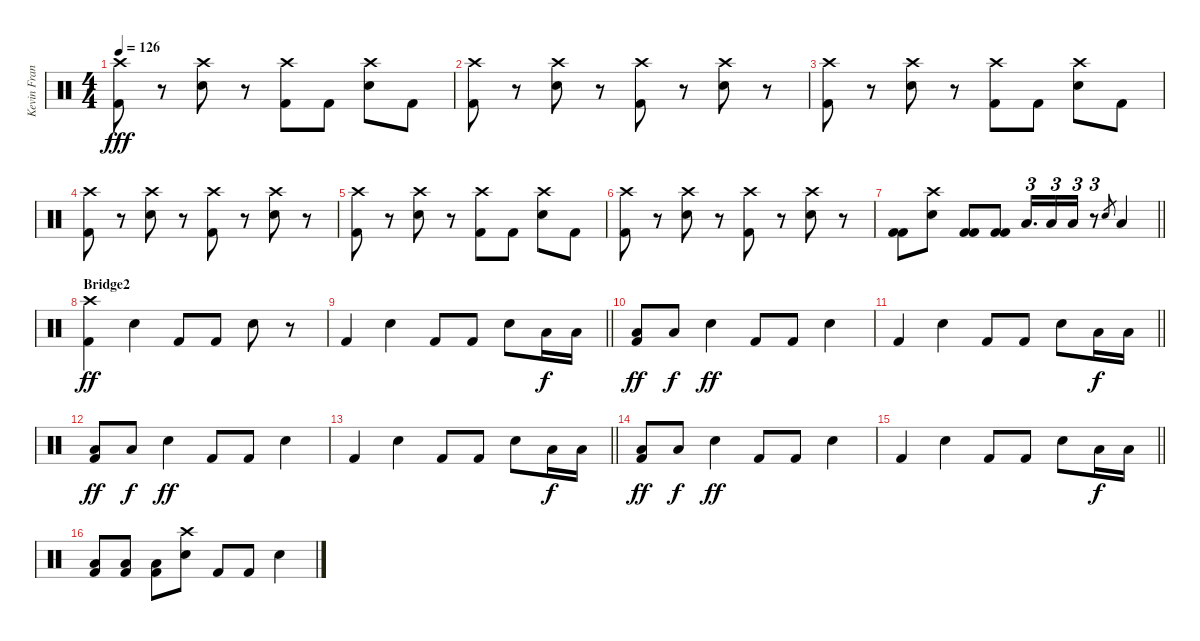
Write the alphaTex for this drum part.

\track ("Kevin Frank" "Kevin Fran") {instrument percussion}
\staff
\articulation defaults
\ts (4 4)
\tempo 126
\clef neutral
\ks c
("Crash high (hit)" "Kick (hit) 2").8{dy fff} r.8 ("Crash high (hit)" "Snare (hit) 2").8 r.8 ("Crash high (hit)" "Kick (hit) 2").8 "Kick (hit) 2".8 ("Crash high (hit)" "Snare (hit) 2").8 "Kick (hit) 2".8 |
("Crash high (hit)" "Kick (hit) 2").8 r.8 ("Crash high (hit)" "Snare (hit) 2").8 r.8 ("Crash high (hit)" "Kick (hit) 2").8 r.8 ("Crash high (hit)" "Snare (hit) 2").8 r.8 |
("Crash high (hit)" "Kick (hit) 2").8 r.8 ("Crash high (hit)" "Snare (hit) 2").8 r.8 ("Crash high (hit)" "Kick (hit) 2").8 "Kick (hit) 2".8 ("Crash high (hit)" "Snare (hit) 2").8 "Kick (hit) 2".8 |
("Crash high (hit)" "Kick (hit) 2").8 r.8 ("Crash high (hit)" "Snare (hit) 2").8 r.8 ("Crash high (hit)" "Kick (hit) 2").8 r.8 ("Crash high (hit)" "Snare (hit) 2").8 r.8 |
("Crash high (hit)" "Kick (hit) 2").8 r.8 ("Crash high (hit)" "Snare (hit) 2").8 r.8 ("Crash high (hit)" "Kick (hit) 2").8 "Kick (hit) 2".8 ("Crash high (hit)" "Snare (hit) 2").8 "Kick (hit) 2".8 |
("Crash high (hit)" "Kick (hit) 2").8 r.8 ("Crash high (hit)" "Snare (hit) 2").8 r.8 ("Crash high (hit)" "Kick (hit) 2").8 r.8 ("Crash high (hit)" "Snare (hit) 2").8 r.8 |
\barLineRight lightlight
("Kick (hit) 2" "Kick (hit) 2").8 ("Crash high (hit)" "Snare (hit) 2").8 ("Kick (hit) 2" "Kick (hit) 2").8 ("Kick (hit) 2" "Kick (hit) 2").8 "Low Tom (hit)".16{d tu (3 2)} "Low Tom (hit)".16{tu (3 2)} "Low Tom (hit)".16{tu (3 2)} r.8{tu (3 2)} "Snare (hit) 2".8{gr} "Low Tom (hit)".4 |
\section ("" "Bridge2")
("Crash high (hit)" "Kick (hit) 2").4{dy ff} "Snare (hit) 2".4 "Kick (hit) 2".8 "Kick (hit) 2".8 "Snare (hit) 2".8 r.8 |
\barLineRight lightlight "Kick (hit) 2".4 "Snare (hit) 2".4 "Kick (hit) 2".8 "Kick (hit) 2".8 "Snare (hit) 2".8 "Low Tom (hit)".16{dy f} "Low Tom (hit)".16
|
("Kick (hit) 2" "Low Tom (hit)").8{dy ff} "Low Tom (hit)".8{dy f} "Snare (hit) 2".4{dy ff} "Kick (hit) 2".8 "Kick (hit) 2".8 "Snare (hit) 2".4 |
\barLineRight lightlight "Kick (hit) 2".4 "Snare (hit) 2".4 "Kick (hit) 2".8 "Kick (hit) 2".8 "Snare (hit) 2".8 "Low Tom (hit)".16{dy f} "Low Tom (hit)".16
|
("Kick (hit) 2" "Low Tom (hit)").8{dy ff} "Low Tom (hit)".8{dy f} "Snare (hit) 2".4{dy ff} "Kick (hit) 2".8 "Kick (hit) 2".8 "Snare (hit) 2".4 |
\barLineRight lightlight "Kick (hit) 2".4 "Snare (hit) 2".4 "Kick (hit) 2".8 "Kick (hit) 2".8 "Snare (hit) 2".8 "Low Tom (hit)".16{dy f} "Low Tom (hit)".16
|
("Kick (hit) 2" "Low Tom (hit)").8{dy ff} "Low Tom (hit)".8{dy f} "Snare (hit) 2".4{dy ff} "Kick (hit) 2".8 "Kick (hit) 2".8 "Snare (hit) 2".4 |
\barLineRight lightlight "Kick (hit) 2".4 "Snare (hit) 2".4 "Kick (hit) 2".8 "Kick (hit) 2".8 "Snare (hit) 2".8 "Low Tom (hit)".16{dy f} "Low Tom (hit)".16
|
("Low Tom (hit)" "Kick (hit) 2").8 ("Low Tom (hit)" "Kick (hit) 2").8 ("Low Tom (hit)" "Kick (hit) 2").8 ("Crash high (hit)" "Snare (hit) 2").8 "Kick (hit) 2".8 "Kick (hit) 2".8 "Snare (hit) 2".4
